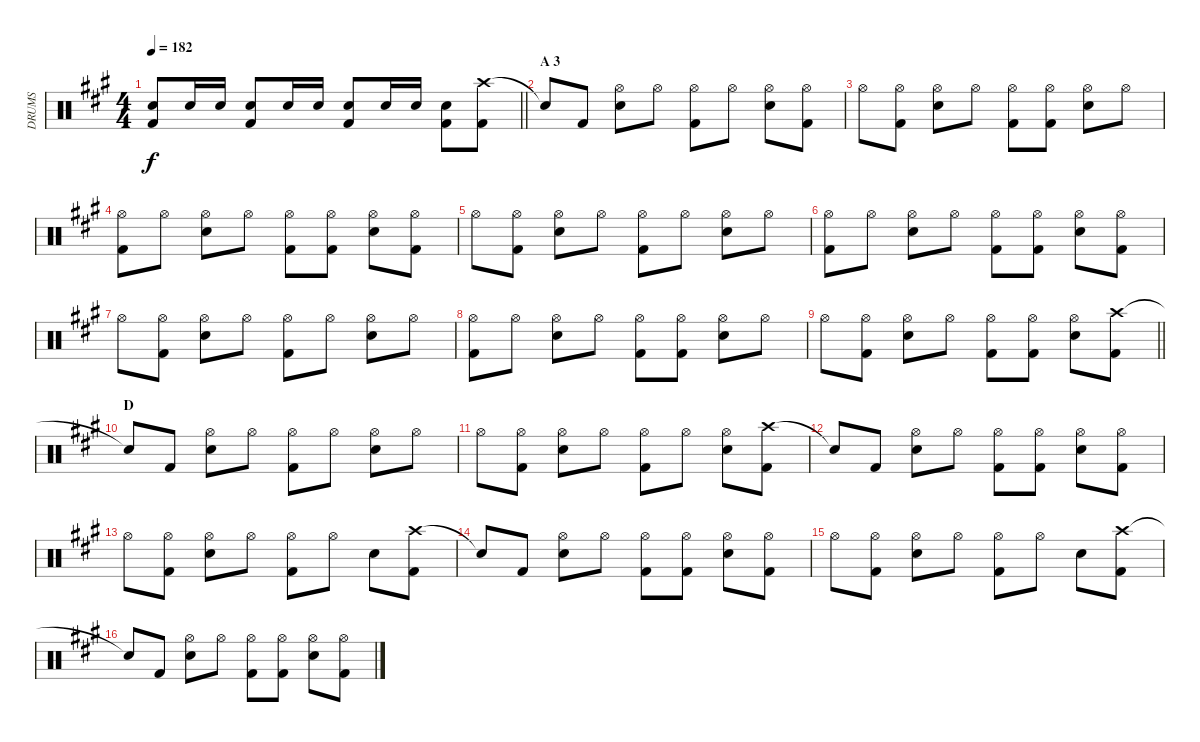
\track ("DRUMS" "DRUMS") {instrument percussion}
\staff {score}
\articulation defaults
\ts (4 4)
\tempo 182
\clef neutral
\barLineRight lightlight
\ks a
("Snare (hit) 2" "Kick (hit) 2").8{dy f} "Snare (hit) 2".16 "Snare (hit) 2".16 ("Snare (hit) 2" "Kick (hit) 2").8 "Snare (hit) 2".16 "Snare (hit) 2".16 ("Snare (hit) 2" "Kick (hit) 2").8 "Snare (hit) 2".16 "Snare (hit) 2".16 ("Snare (hit) 2" "Kick (hit) 2").8 ("Crash high (hit)" "Kick (hit) 2").8 |
\section ("" "A 3")
"Snare (hit)"{t}.8 "Kick (hit) 2".8 ("Hi-Hat (open)" "Snare (hit) 2").8 "Hi-Hat (open)".8 ("Hi-Hat (open)" "Kick (hit) 2").8 "Hi-Hat (open)".8 ("Hi-Hat (open)" "Snare (hit) 2").8 ("Hi-Hat (open)" "Kick (hit) 2").8 |
"Hi-Hat (open)".8 ("Hi-Hat (open)" "Kick (hit) 2").8 ("Hi-Hat (open)" "Snare (hit) 2").8 "Hi-Hat (open)".8 ("Hi-Hat (open)" "Kick (hit) 2").8 ("Hi-Hat (open)" "Kick (hit) 2").8 ("Hi-Hat (open)" "Snare (hit) 2").8 "Hi-Hat (open)".8 |
("Hi-Hat (open)" "Kick (hit) 2").8 "Hi-Hat (open)".8 ("Hi-Hat (open)" "Snare (hit) 2").8 "Hi-Hat (open)".8 ("Hi-Hat (open)" "Kick (hit) 2").8 ("Hi-Hat (open)" "Kick (hit) 2").8 ("Hi-Hat (open)" "Snare (hit) 2").8 ("Hi-Hat (open)" "Kick (hit) 2").8 |
"Hi-Hat (open)".8 ("Hi-Hat (open)" "Kick (hit) 2").8 ("Hi-Hat (open)" "Snare (hit) 2").8 "Hi-Hat (open)".8 ("Hi-Hat (open)" "Kick (hit) 2").8 "Hi-Hat (open)".8 ("Hi-Hat (open)" "Snare (hit) 2").8 "Hi-Hat (open)".8 |
("Hi-Hat (open)" "Kick (hit) 2").8 "Hi-Hat (open)".8 ("Hi-Hat (open)" "Snare (hit) 2").8 "Hi-Hat (open)".8 ("Hi-Hat (open)" "Kick (hit) 2").8 ("Hi-Hat (open)" "Kick (hit) 2").8 ("Hi-Hat (open)" "Snare (hit) 2").8 ("Hi-Hat (open)" "Kick (hit) 2").8 |
"Hi-Hat (open)".8 ("Hi-Hat (open)" "Kick (hit) 2").8 ("Hi-Hat (open)" "Snare (hit) 2").8 "Hi-Hat (open)".8 ("Hi-Hat (open)" "Kick (hit) 2").8 "Hi-Hat (open)".8 ("Hi-Hat (open)" "Snare (hit) 2").8 "Hi-Hat (open)".8 |
("Hi-Hat (open)" "Kick (hit) 2").8 "Hi-Hat (open)".8 ("Hi-Hat (open)" "Snare (hit) 2").8 "Hi-Hat (open)".8 ("Hi-Hat (open)" "Kick (hit) 2").8 ("Hi-Hat (open)" "Kick (hit) 2").8 ("Hi-Hat (open)" "Snare (hit) 2").8 "Hi-Hat (open)".8 |
\barLineRight lightlight "Hi-Hat (open)".8
("Hi-Hat (open)" "Kick (hit) 2").8 ("Hi-Hat (open)" "Snare (hit) 2").8 "Hi-Hat (open)".8 ("Hi-Hat (open)" "Kick (hit) 2").8 ("Hi-Hat (open)" "Kick (hit) 2").8 ("Hi-Hat (open)" "Snare (hit) 2").8 ("Crash high (hit)" "Kick (hit) 2").8 |
\section ("" "D")
"Snare (hit)"{t}.8 "Kick (hit) 2".8 ("Hi-Hat (open)" "Snare (hit) 2").8 "Hi-Hat (open)".8 ("Hi-Hat (open)" "Kick (hit) 2").8 "Hi-Hat (open)".8 ("Hi-Hat (open)" "Snare (hit) 2").8 "Hi-Hat (open)".8 |
"Hi-Hat (open)".8 ("Hi-Hat (open)" "Kick (hit) 2").8 ("Hi-Hat (open)" "Snare (hit) 2").8 "Hi-Hat (open)".8 ("Hi-Hat (open)" "Kick (hit) 2").8 "Hi-Hat (open)".8 ("Hi-Hat (open)" "Snare (hit) 2").8 ("Crash high (hit)" "Kick (hit) 2").8 |
"Snare (hit)"{t}.8 "Kick (hit) 2".8 ("Hi-Hat (open)" "Snare (hit) 2").8 "Hi-Hat (open)".8 ("Hi-Hat (open)" "Kick (hit) 2").8 ("Hi-Hat (open)" "Kick (hit) 2").8 ("Hi-Hat (open)" "Snare (hit) 2").8 ("Hi-Hat (open)" "Kick (hit) 2").8 |
"Hi-Hat (open)".8 ("Hi-Hat (open)" "Kick (hit) 2").8 ("Hi-Hat (open)" "Snare (hit) 2").8 "Hi-Hat (open)".8 ("Hi-Hat (open)" "Kick (hit) 2").8 "Hi-Hat (open)".8 "Snare (hit) 2".8 ("Crash high (hit)" "Kick (hit) 2").8 |
"Snare (hit)"{t}.8 "Kick (hit) 2".8 ("Hi-Hat (open)" "Snare (hit) 2").8 "Hi-Hat (open)".8 ("Hi-Hat (open)" "Kick (hit) 2").8 ("Hi-Hat (open)" "Kick (hit) 2").8 ("Hi-Hat (open)" "Snare (hit) 2").8 ("Hi-Hat (open)" "Kick (hit) 2").8 |
"Hi-Hat (open)".8 ("Hi-Hat (open)" "Kick (hit) 2").8 ("Hi-Hat (open)" "Snare (hit) 2").8 "Hi-Hat (open)".8 ("Hi-Hat (open)" "Kick (hit) 2").8 "Hi-Hat (open)".8 "Snare (hit) 2".8 ("Crash high (hit)" "Kick (hit) 2").8 |
"Snare (hit)"{t}.8 "Kick (hit) 2".8 ("Hi-Hat (open)" "Snare (hit) 2").8 "Hi-Hat (open)".8 ("Hi-Hat (open)" "Kick (hit) 2").8 ("Hi-Hat (open)" "Kick (hit) 2").8 ("Hi-Hat (open)" "Snare (hit) 2").8 ("Hi-Hat (open)" "Kick (hit) 2").8
